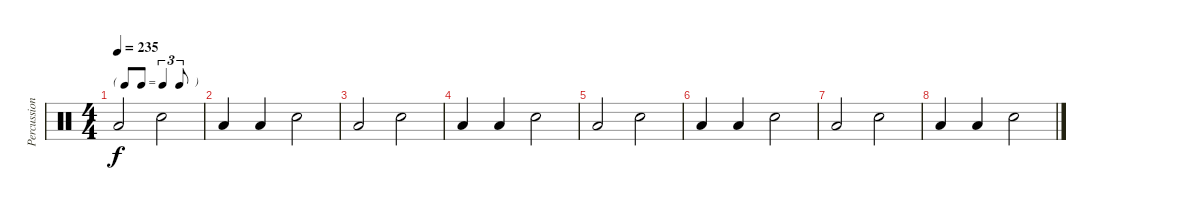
\track ("Percussions" "Percussion") {instrument percussion}
\staff
\articulation defaults
\ts (4 4)
\tf triplet8th
\tempo 235
\clef neutral
\ks c "Low Tom (hit)".2{dy f} "Snare (hit) 2".2
|
"Low Tom (hit)".4 "Low Tom (hit)".4 "Snare (hit) 2".2 |
"Low Tom (hit)".2 "Snare (hit) 2".2 |
"Low Tom (hit)".4 "Low Tom (hit)".4 "Snare (hit) 2".2 |
"Low Tom (hit)".2 "Snare (hit) 2".2 |
"Low Tom (hit)".4 "Low Tom (hit)".4 "Snare (hit) 2".2 |
"Low Tom (hit)".2 "Snare (hit) 2".2 |
"Low Tom (hit)".4 "Low Tom (hit)".4 "Snare (hit) 2".2
